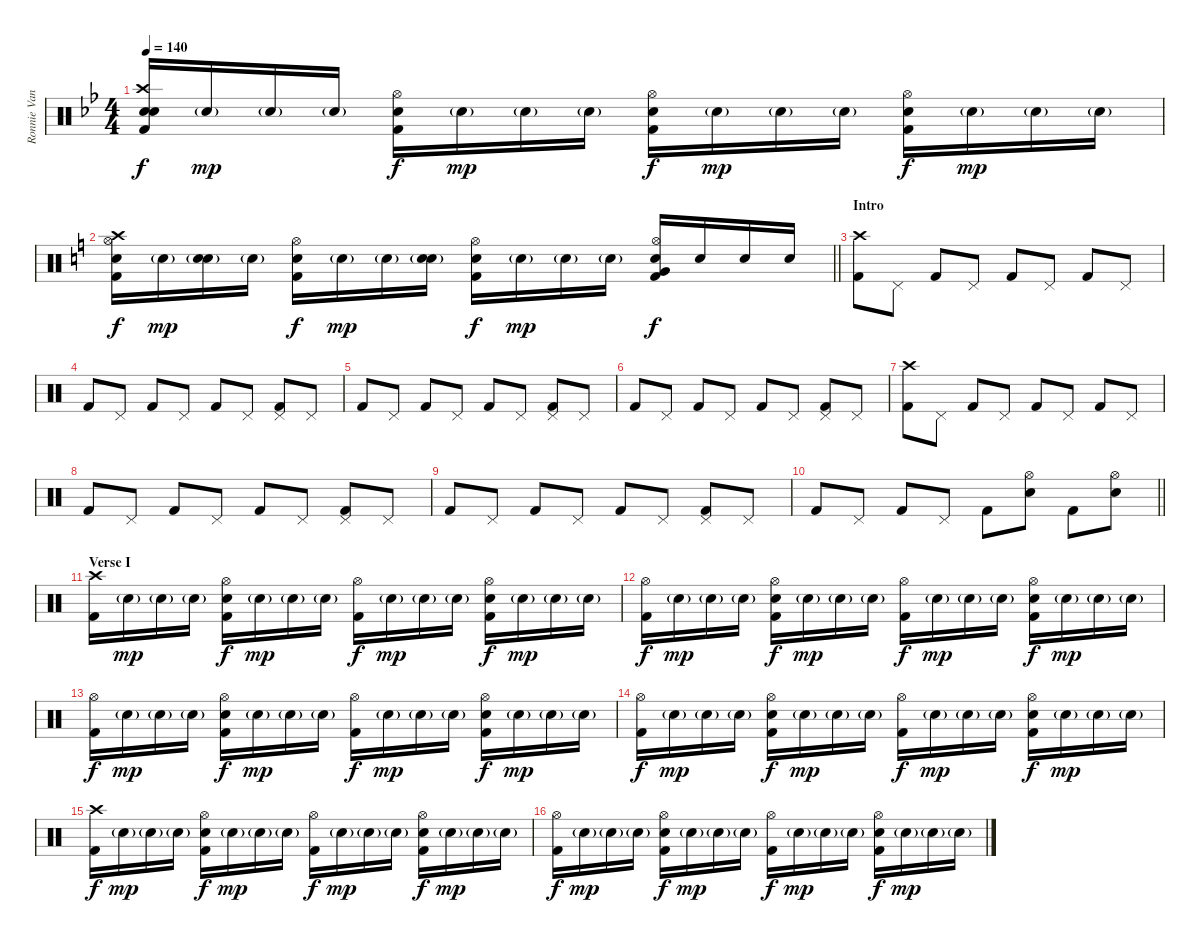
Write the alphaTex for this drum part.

\track ("Ronnie Vannucci Jr.'s drums" "Ronnie Van") {instrument percussion}
\staff {score}
\articulation defaults
\ts (4 4)
\tempo 140
\clef neutral
\ks bb
("Electric Snare (hit)" "Crash high (hit)" "Kick (hit) 2" "Electric Snare (hit)").16{dy f} "Electric Snare (hit)"{g}.16{dy mp} "Electric Snare (hit)"{g}.16 "Electric Snare (hit)"{g}.16 ("Electric Snare (hit)" "Hi-Hat (open)" "Kick (hit) 2").16{dy f} "Electric Snare (hit)"{g}.16{dy mp} "Electric Snare (hit)"{g}.16 "Electric Snare (hit)"{g}.16 ("Electric Snare (hit)" "Hi-Hat (open)" "Kick (hit) 2").16{dy f} "Electric Snare (hit)"{g}.16{dy mp} "Electric Snare (hit)"{g}.16 "Electric Snare (hit)"{g}.16 ("Electric Snare (hit)" "Hi-Hat (open)" "Kick (hit) 2").16{dy f} "Electric Snare (hit)"{g}.16{dy mp} "Electric Snare (hit)"{g}.16 "Electric Snare (hit)"{g}.16 |
\barLineRight lightlight
\ks c
("Electric Snare (hit)" "Hi-Hat (open)" "Kick (hit) 2" "Crash high (hit)").16{dy f} "Electric Snare (hit)"{g}.16{dy mp} ("Electric Snare (hit)"{g} "Electric Snare (hit)").16 "Electric Snare (hit)"{g}.16 ("Electric Snare (hit)" "Hi-Hat (open)" "Kick (hit) 2").16{dy f} "Electric Snare (hit)"{g}.16{dy mp} "Electric Snare (hit)"{g}.16 ("Electric Snare (hit)"{g} "Electric Snare (hit)").16 ("Electric Snare (hit)" "Hi-Hat (open)" "Kick (hit) 2").16{dy f} "Electric Snare (hit)"{g}.16{dy mp} "Electric Snare (hit)"{g}.16 "Electric Snare (hit)"{g}.16 ("Electric Snare (hit)" "Hi-Hat (open)" "Kick (hit) 2" "Very Low Tom (hit)").16{dy f} "Electric Snare (hit)".16 "Electric Snare (hit)".16 "Electric Snare (hit)".16 |
\section ("" "Intro")
("Kick (hit) 2" "Crash high (hit)").8 "Pedal Hi-Hat (hit)".8 "Kick (hit) 2".8 "Pedal Hi-Hat (hit)".8 "Kick (hit) 2".8 "Pedal Hi-Hat (hit)".8 "Kick (hit) 2".8 "Pedal Hi-Hat (hit)".8 |
"Kick (hit) 2".8 "Pedal Hi-Hat (hit)".8 "Kick (hit) 2".8 "Pedal Hi-Hat (hit)".8 "Kick (hit) 2".8 "Pedal Hi-Hat (hit)".8 ("Pedal Hi-Hat (hit)" "Kick (hit) 2").8 "Pedal Hi-Hat (hit)".8 |
"Kick (hit) 2".8 "Pedal Hi-Hat (hit)".8 "Kick (hit) 2".8 "Pedal Hi-Hat (hit)".8 "Kick (hit) 2".8 "Pedal Hi-Hat (hit)".8 ("Pedal Hi-Hat (hit)" "Kick (hit) 2").8 "Pedal Hi-Hat (hit)".8 |
"Kick (hit) 2".8 "Pedal Hi-Hat (hit)".8 "Kick (hit) 2".8 "Pedal Hi-Hat (hit)".8 "Kick (hit) 2".8 "Pedal Hi-Hat (hit)".8 ("Pedal Hi-Hat (hit)" "Kick (hit) 2").8 "Pedal Hi-Hat (hit)".8 |
("Kick (hit) 2" "Crash high (hit)").8 "Pedal Hi-Hat (hit)".8 "Kick (hit) 2".8 "Pedal Hi-Hat (hit)".8 "Kick (hit) 2".8 "Pedal Hi-Hat (hit)".8 "Kick (hit) 2".8 "Pedal Hi-Hat (hit)".8 |
"Kick (hit) 2".8 "Pedal Hi-Hat (hit)".8 "Kick (hit) 2".8 "Pedal Hi-Hat (hit)".8 "Kick (hit) 2".8 "Pedal Hi-Hat (hit)".8 ("Pedal Hi-Hat (hit)" "Kick (hit) 2").8 "Pedal Hi-Hat (hit)".8 |
"Kick (hit) 2".8 "Pedal Hi-Hat (hit)".8 "Kick (hit) 2".8 "Pedal Hi-Hat (hit)".8 "Kick (hit) 2".8 "Pedal Hi-Hat (hit)".8 ("Pedal Hi-Hat (hit)" "Kick (hit) 2").8 "Pedal Hi-Hat (hit)".8 |
\barLineRight lightlight "Kick (hit) 2".8 "Pedal Hi-Hat (hit)".8 "Kick (hit) 2".8 "Pedal Hi-Hat (hit)".8 "Kick (hit) 2".8
("Hi-Hat (open)" "Electric Snare (hit)").8 "Kick (hit) 2".8 ("Hi-Hat (open)" "Electric Snare (hit)").8 |
\section ("" "Verse I")
("Crash high (hit)" "Kick (hit) 2").16 "Electric Snare (hit)"{g}.16{dy mp} "Electric Snare (hit)"{g}.16 "Electric Snare (hit)"{g}.16 ("Hi-Hat (open)" "Electric Snare (hit)" "Kick (hit) 2").16{dy f} "Electric Snare (hit)"{g}.16{dy mp} "Electric Snare (hit)"{g}.16 "Electric Snare (hit)"{g}.16 ("Hi-Hat (open)" "Kick (hit) 2").16{dy f} "Electric Snare (hit)"{g}.16{dy mp} "Electric Snare (hit)"{g}.16 "Electric Snare (hit)"{g}.16 ("Hi-Hat (open)" "Electric Snare (hit)" "Kick (hit) 2").16{dy f} "Electric Snare (hit)"{g}.16{dy mp} "Electric Snare (hit)"{g}.16 "Electric Snare (hit)"{g}.16 |
("Hi-Hat (open)" "Kick (hit) 2").16{dy f} "Electric Snare (hit)"{g}.16{dy mp} "Electric Snare (hit)"{g}.16 "Electric Snare (hit)"{g}.16 ("Hi-Hat (open)" "Electric Snare (hit)" "Kick (hit) 2").16{dy f} "Electric Snare (hit)"{g}.16{dy mp} "Electric Snare (hit)"{g}.16 "Electric Snare (hit)"{g}.16 ("Hi-Hat (open)" "Kick (hit) 2").16{dy f} "Electric Snare (hit)"{g}.16{dy mp} "Electric Snare (hit)"{g}.16 "Electric Snare (hit)"{g}.16 ("Hi-Hat (open)" "Electric Snare (hit)" "Kick (hit) 2").16{dy f} "Electric Snare (hit)"{g}.16{dy mp} "Electric Snare (hit)"{g}.16 "Electric Snare (hit)"{g}.16 |
("Hi-Hat (open)" "Kick (hit) 2").16{dy f} "Electric Snare (hit)"{g}.16{dy mp} "Electric Snare (hit)"{g}.16 "Electric Snare (hit)"{g}.16 ("Hi-Hat (open)" "Electric Snare (hit)" "Kick (hit) 2").16{dy f} "Electric Snare (hit)"{g}.16{dy mp} "Electric Snare (hit)"{g}.16 "Electric Snare (hit)"{g}.16 ("Hi-Hat (open)" "Kick (hit) 2").16{dy f} "Electric Snare (hit)"{g}.16{dy mp} "Electric Snare (hit)"{g}.16 "Electric Snare (hit)"{g}.16 ("Hi-Hat (open)" "Electric Snare (hit)" "Kick (hit) 2").16{dy f} "Electric Snare (hit)"{g}.16{dy mp} "Electric Snare (hit)"{g}.16 "Electric Snare (hit)"{g}.16 |
("Hi-Hat (open)" "Kick (hit) 2").16{dy f} "Electric Snare (hit)"{g}.16{dy mp} "Electric Snare (hit)"{g}.16 "Electric Snare (hit)"{g}.16 ("Hi-Hat (open)" "Electric Snare (hit)" "Kick (hit) 2").16{dy f} "Electric Snare (hit)"{g}.16{dy mp} "Electric Snare (hit)"{g}.16 "Electric Snare (hit)"{g}.16 ("Hi-Hat (open)" "Kick (hit) 2").16{dy f} "Electric Snare (hit)"{g}.16{dy mp} "Electric Snare (hit)"{g}.16 "Electric Snare (hit)"{g}.16 ("Hi-Hat (open)" "Electric Snare (hit)" "Kick (hit) 2").16{dy f} "Electric Snare (hit)"{g}.16{dy mp} "Electric Snare (hit)"{g}.16 "Electric Snare (hit)"{g}.16 |
("Crash high (hit)" "Kick (hit) 2").16{dy f} "Electric Snare (hit)"{g}.16{dy mp} "Electric Snare (hit)"{g}.16 "Electric Snare (hit)"{g}.16 ("Hi-Hat (open)" "Electric Snare (hit)" "Kick (hit) 2").16{dy f} "Electric Snare (hit)"{g}.16{dy mp} "Electric Snare (hit)"{g}.16 "Electric Snare (hit)"{g}.16 ("Hi-Hat (open)" "Kick (hit) 2").16{dy f} "Electric Snare (hit)"{g}.16{dy mp} "Electric Snare (hit)"{g}.16 "Electric Snare (hit)"{g}.16 ("Hi-Hat (open)" "Electric Snare (hit)" "Kick (hit) 2").16{dy f} "Electric Snare (hit)"{g}.16{dy mp} "Electric Snare (hit)"{g}.16 "Electric Snare (hit)"{g}.16 |
("Hi-Hat (open)" "Kick (hit) 2").16{dy f} "Electric Snare (hit)"{g}.16{dy mp} "Electric Snare (hit)"{g}.16 "Electric Snare (hit)"{g}.16 ("Hi-Hat (open)" "Electric Snare (hit)" "Kick (hit) 2").16{dy f} "Electric Snare (hit)"{g}.16{dy mp} "Electric Snare (hit)"{g}.16 "Electric Snare (hit)"{g}.16 ("Hi-Hat (open)" "Kick (hit) 2").16{dy f} "Electric Snare (hit)"{g}.16{dy mp} "Electric Snare (hit)"{g}.16 "Electric Snare (hit)"{g}.16 ("Hi-Hat (open)" "Electric Snare (hit)" "Kick (hit) 2").16{dy f} "Electric Snare (hit)"{g}.16{dy mp} "Electric Snare (hit)"{g}.16 "Electric Snare (hit)"{g}.16
